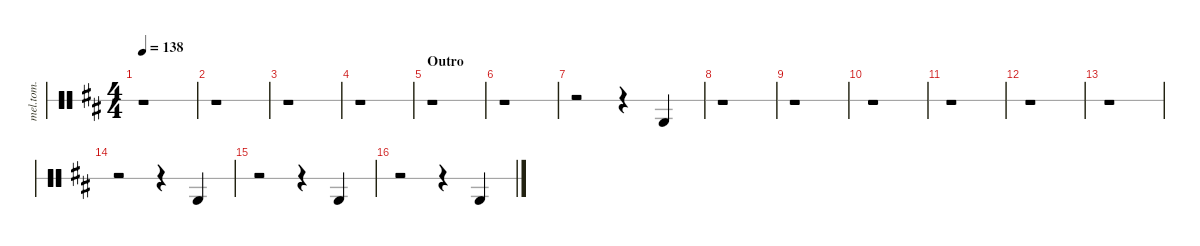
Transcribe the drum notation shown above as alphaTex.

\hideDynamics
\bracketExtendMode groupsimilarinstruments
\otherSystemsTrackNameOrientation horizontal
\track ("Melodic Tom" "mel.tom.") {instrument percussion}
\staff {score 1}
\articulation defaults
\ts (4 4)
\tempo 138
\clef neutral
\ks d
r.1{dy ff} |
r.1 |
r.1 |
r.1 |
\section ("" "Outro")
r.1 |
r.1 |
r.2 r.4 "Low Tom (hit)"{acc forcenatural}.4 |
r.1 |
r.1 |
r.1 |
r.1 |
r.1 |
r.1 |
r.2 r.4 "Low Tom (hit)"{acc forcenatural}.4 |
r.2 r.4 "Low Tom (hit)"{acc forcenatural}.4 |
r.2 r.4 "Low Tom (hit)"{acc forcenatural}.4
